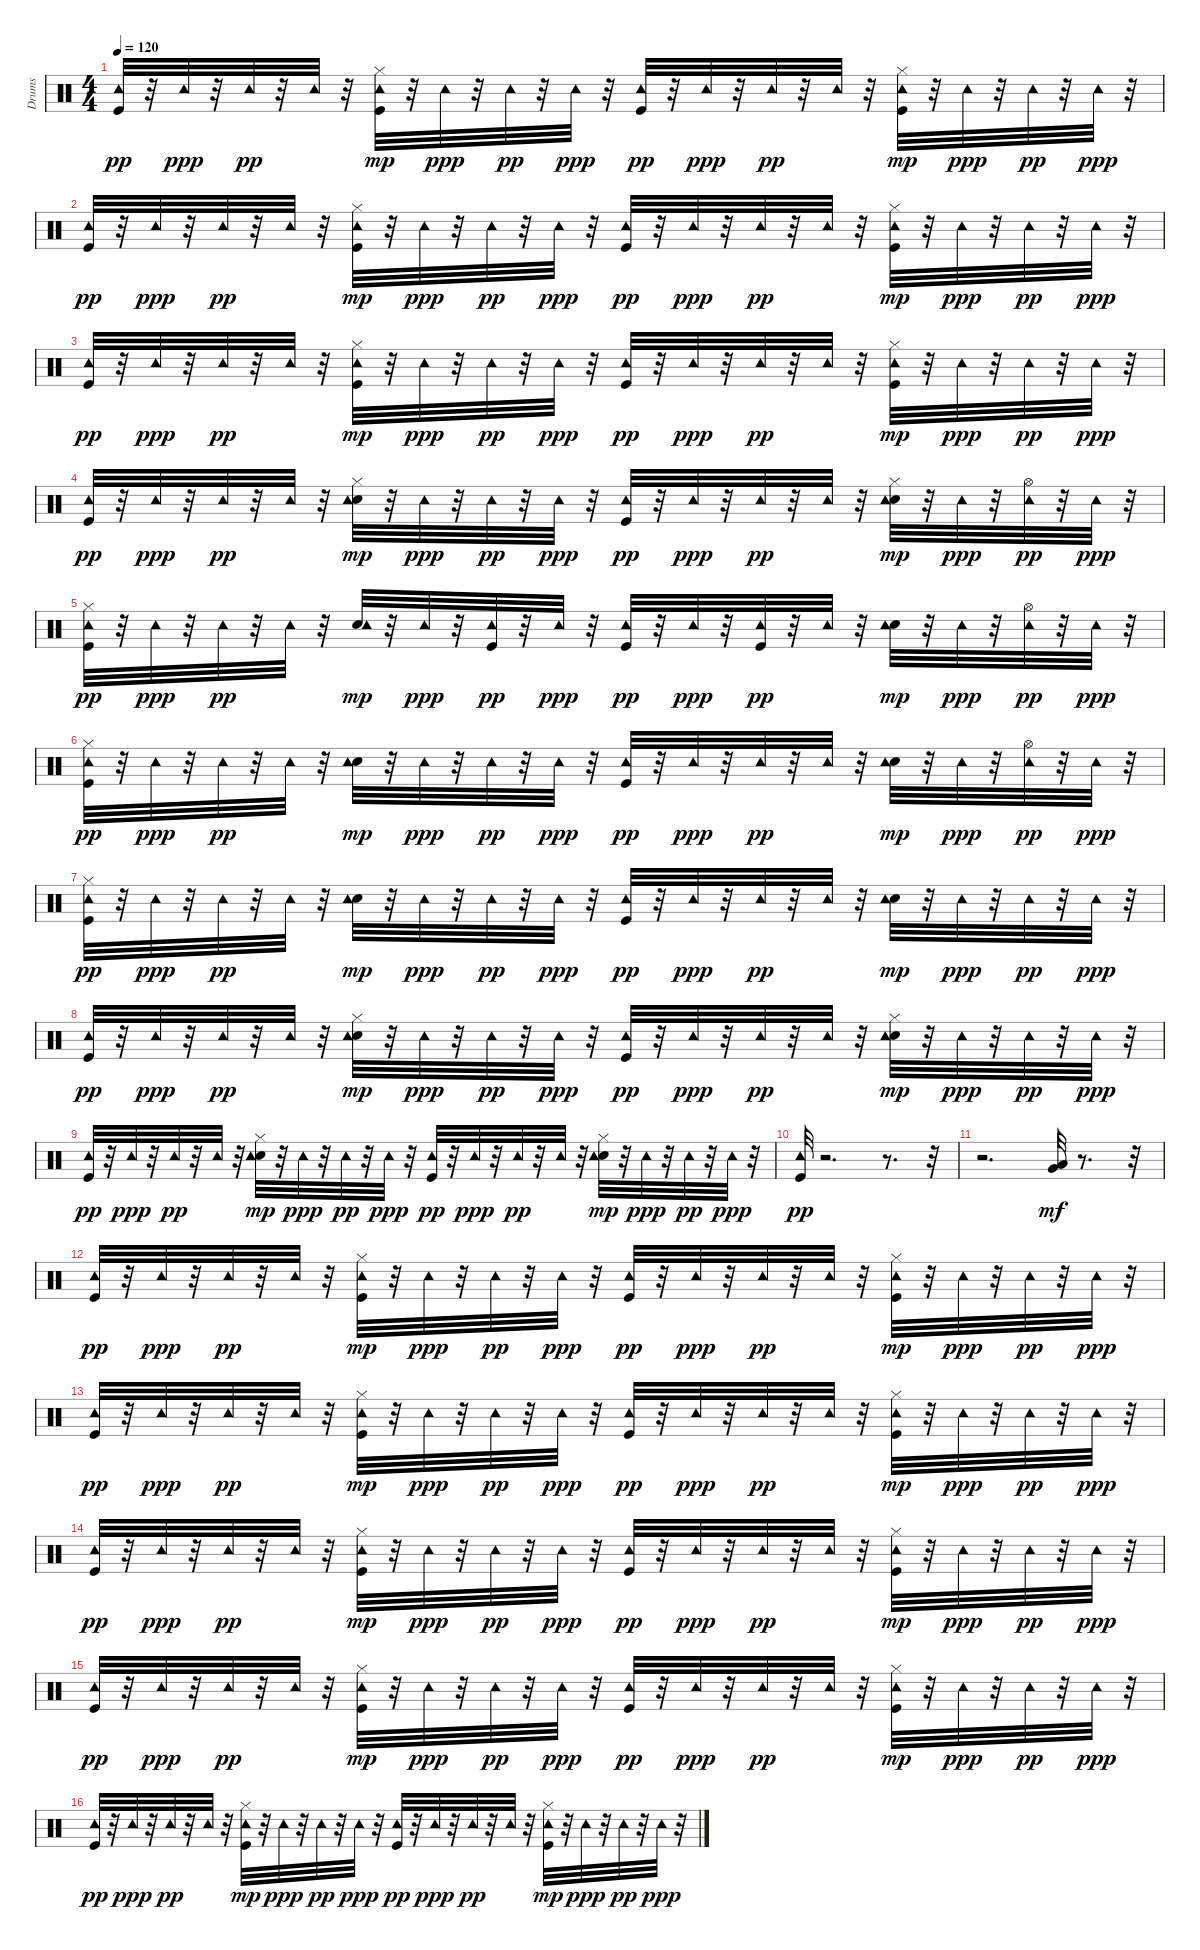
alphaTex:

\track ("Drums" "Drums") {instrument percussion}
\staff {score}
\articulation defaults
\ts (4 4)
\tempo 120
\clef neutral
\ks c
("Kick (hit)" "Tambourine (hit)").32{dy pp} r.32 "Tambourine (hit)".32{dy ppp} r.32 "Tambourine (hit)".32{dy pp} r.32 "Tambourine (hit)".32 r.32 ("Kick (hit)" "Hi-Hat (closed)" "Tambourine (hit)").32{dy mp} r.32 "Tambourine (hit)".32{dy ppp} r.32 "Tambourine (hit)".32{dy pp} r.32 "Tambourine (hit)".32{dy ppp} r.32 ("Kick (hit)" "Tambourine (hit)").32{dy pp} r.32 "Tambourine (hit)".32{dy ppp} r.32 "Tambourine (hit)".32{dy pp} r.32 "Tambourine (hit)".32 r.32 ("Kick (hit)" "Hi-Hat (closed)" "Tambourine (hit)").32{dy mp} r.32 "Tambourine (hit)".32{dy ppp} r.32 "Tambourine (hit)".32{dy pp} r.32 "Tambourine (hit)".32{dy ppp} r.32 |
("Kick (hit)" "Tambourine (hit)").32{dy pp} r.32 "Tambourine (hit)".32{dy ppp} r.32 "Tambourine (hit)".32{dy pp} r.32 "Tambourine (hit)".32 r.32 ("Kick (hit)" "Hi-Hat (closed)" "Tambourine (hit)").32{dy mp} r.32 "Tambourine (hit)".32{dy ppp} r.32 "Tambourine (hit)".32{dy pp} r.32 "Tambourine (hit)".32{dy ppp} r.32 ("Kick (hit)" "Tambourine (hit)").32{dy pp} r.32 "Tambourine (hit)".32{dy ppp} r.32 "Tambourine (hit)".32{dy pp} r.32 "Tambourine (hit)".32 r.32 ("Kick (hit)" "Hi-Hat (closed)" "Tambourine (hit)").32{dy mp} r.32 "Tambourine (hit)".32{dy ppp} r.32 "Tambourine (hit)".32{dy pp} r.32 "Tambourine (hit)".32{dy ppp} r.32 |
("Kick (hit)" "Tambourine (hit)").32{dy pp} r.32 "Tambourine (hit)".32{dy ppp} r.32 "Tambourine (hit)".32{dy pp} r.32 "Tambourine (hit)".32 r.32 ("Kick (hit)" "Hi-Hat (closed)" "Tambourine (hit)").32{dy mp} r.32 "Tambourine (hit)".32{dy ppp} r.32 "Tambourine (hit)".32{dy pp} r.32 "Tambourine (hit)".32{dy ppp} r.32 ("Kick (hit)" "Tambourine (hit)").32{dy pp} r.32 "Tambourine (hit)".32{dy ppp} r.32 "Tambourine (hit)".32{dy pp} r.32 "Tambourine (hit)".32 r.32 ("Kick (hit)" "Hi-Hat (closed)" "Tambourine (hit)").32{dy mp} r.32 "Tambourine (hit)".32{dy ppp} r.32 "Tambourine (hit)".32{dy pp} r.32 "Tambourine (hit)".32{dy ppp} r.32 |
("Kick (hit)" "Tambourine (hit)").32{dy pp} r.32 "Tambourine (hit)".32{dy ppp} r.32 "Tambourine (hit)".32{dy pp} r.32 "Tambourine (hit)".32 r.32 ("Electric Snare (hit)" "Hi-Hat (closed)" "Tambourine (hit)").32{dy mp} r.32 "Tambourine (hit)".32{dy ppp} r.32 "Tambourine (hit)".32{dy pp} r.32 "Tambourine (hit)".32{dy ppp} r.32 ("Kick (hit)" "Tambourine (hit)").32{dy pp} r.32 "Tambourine (hit)".32{dy ppp} r.32 "Tambourine (hit)".32{dy pp} r.32 "Tambourine (hit)".32 r.32 ("Electric Snare (hit)" "Hi-Hat (closed)" "Tambourine (hit)").32{dy mp} r.32 "Tambourine (hit)".32{dy ppp} r.32 ("Hi-Hat (open)" "Tambourine (hit)").32{dy pp} r.32 "Tambourine (hit)".32{dy ppp} r.32 |
("Kick (hit)" "Hi-Hat (closed)" "Tambourine (hit)").32{dy pp} r.32 "Tambourine (hit)".32{dy ppp} r.32 "Tambourine (hit)".32{dy pp} r.32 "Tambourine (hit)".32 r.32 ("Electric Snare (hit)" "Tambourine (hit)").32{dy mp} r.32 "Tambourine (hit)".32{dy ppp} r.32 ("Kick (hit)" "Tambourine (hit)").32{dy pp} r.32 "Tambourine (hit)".32{dy ppp} r.32 ("Kick (hit)" "Tambourine (hit)").32{dy pp} r.32 "Tambourine (hit)".32{dy ppp} r.32 ("Kick (hit)" "Tambourine (hit)").32{dy pp} r.32 "Tambourine (hit)".32 r.32 ("Electric Snare (hit)" "Tambourine (hit)").32{dy mp} r.32 "Tambourine (hit)".32{dy ppp} r.32 ("Hi-Hat (open)" "Tambourine (hit)").32{dy pp} r.32 "Tambourine (hit)".32{dy ppp} r.32 |
("Kick (hit)" "Hi-Hat (closed)" "Tambourine (hit)").32{dy pp} r.32 "Tambourine (hit)".32{dy ppp} r.32 "Tambourine (hit)".32{dy pp} r.32 "Tambourine (hit)".32 r.32 ("Electric Snare (hit)" "Tambourine (hit)").32{dy mp} r.32 "Tambourine (hit)".32{dy ppp} r.32 "Tambourine (hit)".32{dy pp} r.32 "Tambourine (hit)".32{dy ppp} r.32 ("Kick (hit)" "Tambourine (hit)").32{dy pp} r.32 "Tambourine (hit)".32{dy ppp} r.32 "Tambourine (hit)".32{dy pp} r.32 "Tambourine (hit)".32 r.32 ("Electric Snare (hit)" "Tambourine (hit)").32{dy mp} r.32 "Tambourine (hit)".32{dy ppp} r.32 ("Hi-Hat (open)" "Tambourine (hit)").32{dy pp} r.32 "Tambourine (hit)".32{dy ppp} r.32 |
("Kick (hit)" "Hi-Hat (closed)" "Tambourine (hit)").32{dy pp} r.32 "Tambourine (hit)".32{dy ppp} r.32 "Tambourine (hit)".32{dy pp} r.32 "Tambourine (hit)".32 r.32 ("Electric Snare (hit)" "Tambourine (hit)").32{dy mp} r.32 "Tambourine (hit)".32{dy ppp} r.32 "Tambourine (hit)".32{dy pp} r.32 "Tambourine (hit)".32{dy ppp} r.32 ("Kick (hit)" "Tambourine (hit)").32{dy pp} r.32 "Tambourine (hit)".32{dy ppp} r.32 "Tambourine (hit)".32{dy pp} r.32 "Tambourine (hit)".32 r.32 ("Electric Snare (hit)" "Tambourine (hit)").32{dy mp} r.32 "Tambourine (hit)".32{dy ppp} r.32 "Tambourine (hit)".32{dy pp} r.32 "Tambourine (hit)".32{dy ppp} r.32 |
("Kick (hit)" "Tambourine (hit)").32{dy pp} r.32 "Tambourine (hit)".32{dy ppp} r.32 "Tambourine (hit)".32{dy pp} r.32 "Tambourine (hit)".32 r.32 ("Electric Snare (hit)" "Hi-Hat (closed)" "Tambourine (hit)").32{dy mp} r.32 "Tambourine (hit)".32{dy ppp} r.32 "Tambourine (hit)".32{dy pp} r.32 "Tambourine (hit)".32{dy ppp} r.32 ("Kick (hit)" "Tambourine (hit)").32{dy pp} r.32 "Tambourine (hit)".32{dy ppp} r.32 "Tambourine (hit)".32{dy pp} r.32 "Tambourine (hit)".32 r.32 ("Electric Snare (hit)" "Hi-Hat (closed)" "Tambourine (hit)").32{dy mp} r.32 "Tambourine (hit)".32{dy ppp} r.32 "Tambourine (hit)".32{dy pp} r.32 "Tambourine (hit)".32{dy ppp} r.32 |
("Kick (hit)" "Tambourine (hit)").32{dy pp} r.32 "Tambourine (hit)".32{dy ppp} r.32 "Tambourine (hit)".32{dy pp} r.32 "Tambourine (hit)".32 r.32 ("Electric Snare (hit)" "Hi-Hat (closed)" "Tambourine (hit)").32{dy mp} r.32 "Tambourine (hit)".32{dy ppp} r.32 "Tambourine (hit)".32{dy pp} r.32 "Tambourine (hit)".32{dy ppp} r.32 ("Kick (hit)" "Tambourine (hit)").32{dy pp} r.32 "Tambourine (hit)".32{dy ppp} r.32 "Tambourine (hit)".32{dy pp} r.32 "Tambourine (hit)".32 r.32 ("Electric Snare (hit)" "Hi-Hat (closed)" "Tambourine (hit)").32{dy mp} r.32 "Tambourine (hit)".32{dy ppp} r.32 "Tambourine (hit)".32{dy pp} r.32 "Tambourine (hit)".32{dy ppp} r.32 |
("Kick (hit)" "Tambourine (hit)").32{dy pp} r.2{d} r.8{d} r.32 |
r.2{d} ("Low Floor Tom (hit)" "Very Low Tom (hit)").32{dy mf} r.8{d} r.32 |
("Kick (hit)" "Tambourine (hit)").32{dy pp} r.32 "Tambourine (hit)".32{dy ppp} r.32 "Tambourine (hit)".32{dy pp} r.32 "Tambourine (hit)".32 r.32 ("Kick (hit)" "Hi-Hat (closed)" "Tambourine (hit)").32{dy mp} r.32 "Tambourine (hit)".32{dy ppp} r.32 "Tambourine (hit)".32{dy pp} r.32 "Tambourine (hit)".32{dy ppp} r.32 ("Kick (hit)" "Tambourine (hit)").32{dy pp} r.32 "Tambourine (hit)".32{dy ppp} r.32 "Tambourine (hit)".32{dy pp} r.32 "Tambourine (hit)".32 r.32 ("Kick (hit)" "Hi-Hat (closed)" "Tambourine (hit)").32{dy mp} r.32 "Tambourine (hit)".32{dy ppp} r.32 "Tambourine (hit)".32{dy pp} r.32 "Tambourine (hit)".32{dy ppp} r.32 |
("Kick (hit)" "Tambourine (hit)").32{dy pp} r.32 "Tambourine (hit)".32{dy ppp} r.32 "Tambourine (hit)".32{dy pp} r.32 "Tambourine (hit)".32 r.32 ("Kick (hit)" "Hi-Hat (closed)" "Tambourine (hit)").32{dy mp} r.32 "Tambourine (hit)".32{dy ppp} r.32 "Tambourine (hit)".32{dy pp} r.32 "Tambourine (hit)".32{dy ppp} r.32 ("Kick (hit)" "Tambourine (hit)").32{dy pp} r.32 "Tambourine (hit)".32{dy ppp} r.32 "Tambourine (hit)".32{dy pp} r.32 "Tambourine (hit)".32 r.32 ("Kick (hit)" "Hi-Hat (closed)" "Tambourine (hit)").32{dy mp} r.32 "Tambourine (hit)".32{dy ppp} r.32 "Tambourine (hit)".32{dy pp} r.32 "Tambourine (hit)".32{dy ppp} r.32 |
("Kick (hit)" "Tambourine (hit)").32{dy pp} r.32 "Tambourine (hit)".32{dy ppp} r.32 "Tambourine (hit)".32{dy pp} r.32 "Tambourine (hit)".32 r.32 ("Kick (hit)" "Hi-Hat (closed)" "Tambourine (hit)").32{dy mp} r.32 "Tambourine (hit)".32{dy ppp} r.32 "Tambourine (hit)".32{dy pp} r.32 "Tambourine (hit)".32{dy ppp} r.32 ("Kick (hit)" "Tambourine (hit)").32{dy pp} r.32 "Tambourine (hit)".32{dy ppp} r.32 "Tambourine (hit)".32{dy pp} r.32 "Tambourine (hit)".32 r.32 ("Kick (hit)" "Hi-Hat (closed)" "Tambourine (hit)").32{dy mp} r.32 "Tambourine (hit)".32{dy ppp} r.32 "Tambourine (hit)".32{dy pp} r.32 "Tambourine (hit)".32{dy ppp} r.32 |
("Kick (hit)" "Tambourine (hit)").32{dy pp} r.32 "Tambourine (hit)".32{dy ppp} r.32 "Tambourine (hit)".32{dy pp} r.32 "Tambourine (hit)".32 r.32 ("Kick (hit)" "Hi-Hat (closed)" "Tambourine (hit)").32{dy mp} r.32 "Tambourine (hit)".32{dy ppp} r.32 "Tambourine (hit)".32{dy pp} r.32 "Tambourine (hit)".32{dy ppp} r.32 ("Kick (hit)" "Tambourine (hit)").32{dy pp} r.32 "Tambourine (hit)".32{dy ppp} r.32 "Tambourine (hit)".32{dy pp} r.32 "Tambourine (hit)".32 r.32 ("Kick (hit)" "Hi-Hat (closed)" "Tambourine (hit)").32{dy mp} r.32 "Tambourine (hit)".32{dy ppp} r.32 "Tambourine (hit)".32{dy pp} r.32 "Tambourine (hit)".32{dy ppp} r.32 |
("Kick (hit)" "Tambourine (hit)").32{dy pp} r.32 "Tambourine (hit)".32{dy ppp} r.32 "Tambourine (hit)".32{dy pp} r.32 "Tambourine (hit)".32 r.32 ("Kick (hit)" "Hi-Hat (closed)" "Tambourine (hit)").32{dy mp} r.32 "Tambourine (hit)".32{dy ppp} r.32 "Tambourine (hit)".32{dy pp} r.32 "Tambourine (hit)".32{dy ppp} r.32 ("Kick (hit)" "Tambourine (hit)").32{dy pp} r.32 "Tambourine (hit)".32{dy ppp} r.32 "Tambourine (hit)".32{dy pp} r.32 "Tambourine (hit)".32 r.32 ("Kick (hit)" "Hi-Hat (closed)" "Tambourine (hit)").32{dy mp} r.32 "Tambourine (hit)".32{dy ppp} r.32 "Tambourine (hit)".32{dy pp} r.32 "Tambourine (hit)".32{dy ppp} r.32
